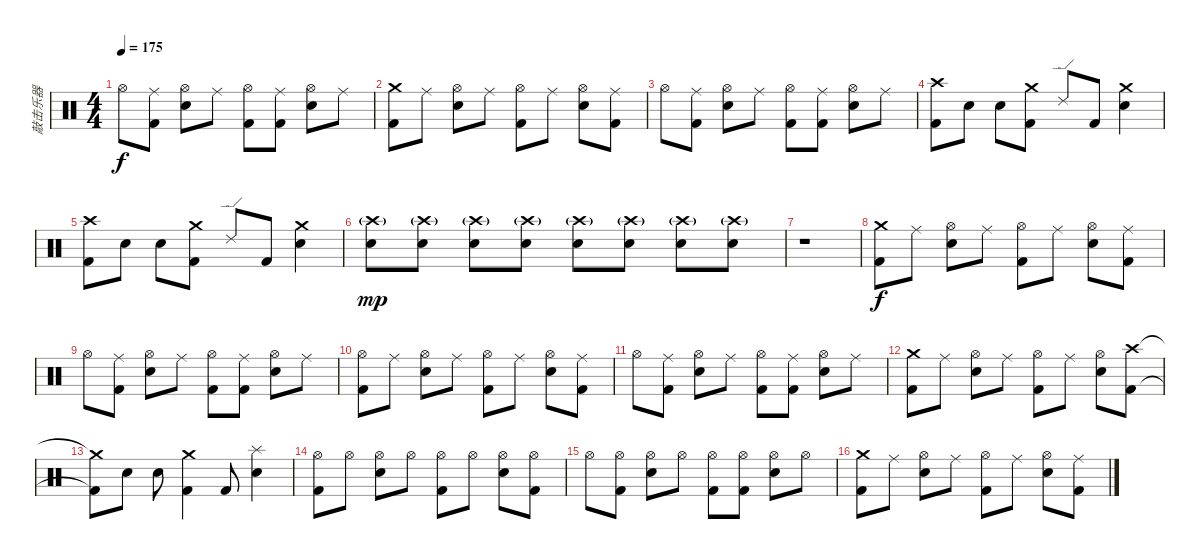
\track ("敲击乐器" "敲击乐器") {instrument percussion}
\staff {score}
\articulation defaults
\ts (4 4)
\tempo 175
\clef neutral
\ks c "Hi-Hat (open)".8{dy f}
("Kick (hit) 2" "Ride (middle)").8 ("Electric Snare (hit)" "Hi-Hat (open)").8 "Ride (middle)".8 ("Kick (hit) 2" "Hi-Hat (open)").8 ("Kick (hit) 2" "Ride (middle)").8 ("Electric Snare (hit)" "Hi-Hat (open)").8 "Ride (middle)".8 |
("Kick (hit) 2" "Crash medium (hit)").8 "Ride (middle)".8 ("Electric Snare (hit)" "Hi-Hat (open)").8 "Ride (middle)".8 ("Kick (hit) 2" "Hi-Hat (open)").8 "Ride (middle)".8 ("Electric Snare (hit)" "Hi-Hat (open)").8 ("Kick (hit) 2" "Ride (middle)").8 |
"Hi-Hat (open)".8 ("Kick (hit) 2" "Ride (middle)").8 ("Electric Snare (hit)" "Hi-Hat (open)").8 "Ride (middle)".8 ("Kick (hit) 2" "Hi-Hat (open)").8 ("Kick (hit) 2" "Ride (middle)").8 ("Electric Snare (hit)" "Hi-Hat (open)").8 "Ride (middle)".8 |
("Kick (hit) 2" "Crash high (hit)").8 "Electric Snare (hit)".8 "Electric Snare (hit)".8 ("Kick (hit) 2" "Crash medium (hit)").8 "Ride (edge) 2".8 "Kick (hit) 2".8 ("Electric Snare (hit)" "Crash medium (hit)").4 |
("Kick (hit) 2" "Crash high (hit)").8 "Electric Snare (hit)".8 "Electric Snare (hit)".8 ("Kick (hit) 2" "Crash medium (hit)").8 "Ride (edge) 2".8 "Kick (hit) 2".8 ("Electric Snare (hit)" "Crash medium (hit)").4 |
("Electric Snare (hit)" "Crash high (hit)"{g}).8{dy mp} ("Electric Snare (hit)" "Crash high (hit)"{g}).8 ("Electric Snare (hit)" "Crash high (hit)"{g}).8 ("Electric Snare (hit)" "Crash high (hit)"{g}).8 ("Electric Snare (hit)" "Crash high (hit)"{g}).8 ("Electric Snare (hit)" "Crash high (hit)"{g}).8 ("Electric Snare (hit)" "Crash high (hit)"{g}).8 ("Electric Snare (hit)" "Crash high (hit)"{g}).8 |
r.1 |
("Kick (hit) 2" "Crash medium (hit)").8{dy f} "Ride (middle)".8 ("Electric Snare (hit)" "Hi-Hat (open)").8 "Ride (middle)".8 ("Kick (hit) 2" "Hi-Hat (open)").8 "Ride (middle)".8 ("Electric Snare (hit)" "Hi-Hat (open)").8 ("Kick (hit) 2" "Ride (middle)").8 |
"Hi-Hat (open)".8 ("Kick (hit) 2" "Ride (middle)").8 ("Electric Snare (hit)" "Hi-Hat (open)").8 "Ride (middle)".8 ("Kick (hit) 2" "Hi-Hat (open)").8 ("Kick (hit) 2" "Ride (middle)").8 ("Electric Snare (hit)" "Hi-Hat (open)").8 "Ride (middle)".8 |
("Kick (hit) 2" "Hi-Hat (open)").8 "Ride (middle)".8 ("Electric Snare (hit)" "Hi-Hat (open)").8 "Ride (middle)".8 ("Kick (hit) 2" "Hi-Hat (open)").8 "Ride (middle)".8 ("Electric Snare (hit)" "Hi-Hat (open)").8 ("Kick (hit) 2" "Ride (middle)").8 |
"Hi-Hat (open)".8 ("Kick (hit) 2" "Ride (middle)").8 ("Electric Snare (hit)" "Hi-Hat (open)").8 "Ride (middle)".8 ("Kick (hit) 2" "Hi-Hat (open)").8 ("Kick (hit) 2" "Ride (middle)").8 ("Electric Snare (hit)" "Hi-Hat (open)").8 "Ride (middle)".8 |
("Kick (hit) 2" "Crash medium (hit)").8 "Ride (middle)".8 ("Electric Snare (hit)" "Hi-Hat (open)").8 "Ride (middle)".8 ("Kick (hit) 2" "Hi-Hat (open)").8 "Ride (middle)".8 ("Electric Snare (hit)" "Hi-Hat (open)").8 ("Kick (hit) 2" "Crash high (hit)").8 |
("Kick (hit) 2"{t} "Crash medium (hit)"{t}).8 "Electric Snare (hit)".8 "Electric Snare (hit)".8 ("Kick (hit) 2" "Crash medium (hit)").4 "Kick (hit) 2".8 ("Electric Snare (hit)" "Splash (hit)").4 |
("Kick (hit) 2" "Hi-Hat (open)").8 "Hi-Hat (open)".8 ("Electric Snare (hit)" "Hi-Hat (open)").8 "Hi-Hat (open)".8 ("Kick (hit) 2" "Hi-Hat (open)").8 "Hi-Hat (open)".8 ("Electric Snare (hit)" "Hi-Hat (open)").8 ("Kick (hit) 2" "Hi-Hat (open)").8 |
"Hi-Hat (open)".8 ("Kick (hit) 2" "Hi-Hat (open)").8 ("Electric Snare (hit)" "Hi-Hat (open)").8 "Hi-Hat (open)".8 ("Kick (hit) 2" "Hi-Hat (open)").8 ("Kick (hit) 2" "Hi-Hat (open)").8 ("Electric Snare (hit)" "Hi-Hat (open)").8 "Hi-Hat (open)".8 |
("Kick (hit) 2" "Crash medium (hit)").8 "Ride (middle)".8 ("Electric Snare (hit)" "Hi-Hat (open)").8 "Ride (middle)".8 ("Kick (hit) 2" "Hi-Hat (open)").8 "Ride (middle)".8 ("Electric Snare (hit)" "Hi-Hat (open)").8 ("Kick (hit) 2" "Ride (middle)").8
